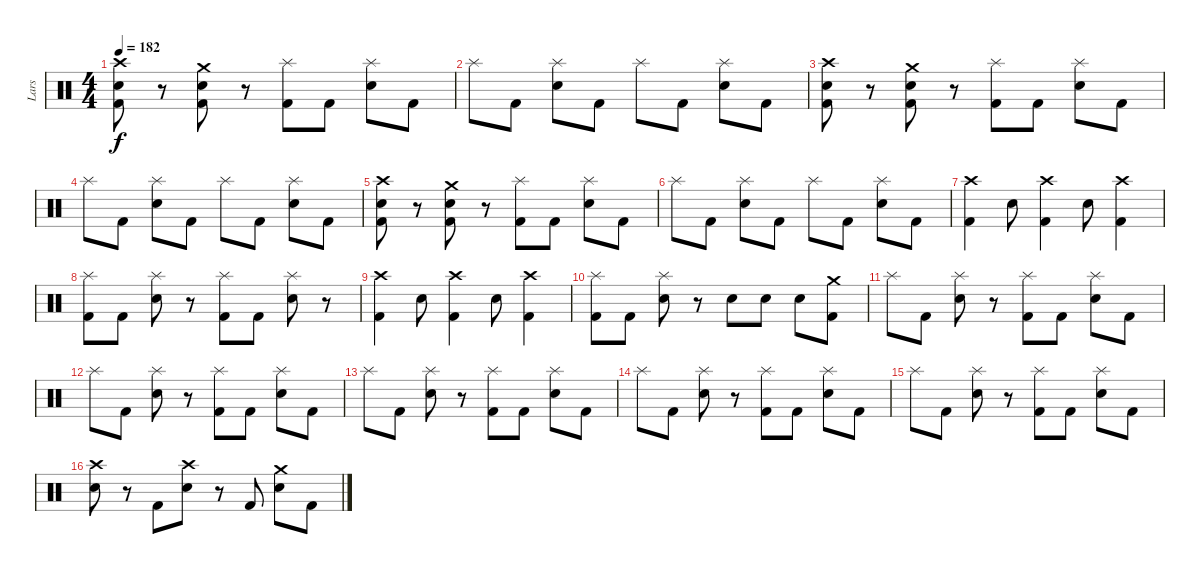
\track ("Lars" "Lars") {instrument percussion}
\staff {score}
\articulation defaults
\ts (4 4)
\tempo 182
\clef neutral
\ks c
("Crash high (hit)" "Snare (hit) 2" "Kick (hit) 2").8{dy f} r.8 ("Crash medium (hit)" "Snare (hit) 2" "Kick (hit) 2").8 r.8 ("Splash (hit)" "Kick (hit) 2").8 "Kick (hit) 2".8 ("Splash (hit)" "Snare (hit) 2").8 "Kick (hit) 2".8 |
"Splash (hit)".8 "Kick (hit) 2".8 ("Splash (hit)" "Snare (hit) 2").8 "Kick (hit) 2".8 "Splash (hit)".8 "Kick (hit) 2".8 ("Splash (hit)" "Snare (hit) 2").8 "Kick (hit) 2".8 |
("Crash high (hit)" "Snare (hit) 2" "Kick (hit) 2").8 r.8 ("Crash medium (hit)" "Snare (hit) 2" "Kick (hit) 2").8 r.8 ("Splash (hit)" "Kick (hit) 2").8 "Kick (hit) 2".8 ("Splash (hit)" "Snare (hit) 2").8 "Kick (hit) 2".8 |
"Splash (hit)".8 "Kick (hit) 2".8 ("Splash (hit)" "Snare (hit) 2").8 "Kick (hit) 2".8 "Splash (hit)".8 "Kick (hit) 2".8 ("Splash (hit)" "Snare (hit) 2").8 "Kick (hit) 2".8 |
("Crash high (hit)" "Snare (hit) 2" "Kick (hit) 2").8 r.8 ("Crash medium (hit)" "Snare (hit) 2" "Kick (hit) 2").8 r.8 ("Splash (hit)" "Kick (hit) 2").8 "Kick (hit) 2".8 ("Splash (hit)" "Snare (hit) 2").8 "Kick (hit) 2".8 |
"Splash (hit)".8 "Kick (hit) 2".8 ("Splash (hit)" "Snare (hit) 2").8 "Kick (hit) 2".8 "Splash (hit)".8 "Kick (hit) 2".8 ("Splash (hit)" "Snare (hit) 2").8 "Kick (hit) 2".8 |
("Crash high (hit)" "Kick (hit) 2").4 "Snare (hit) 2".8 ("Crash high (hit)" "Kick (hit) 2").4 "Snare (hit) 2".8 ("Crash high (hit)" "Kick (hit) 2").4 |
("Splash (hit)" "Kick (hit) 2").8 "Kick (hit) 2".8 ("Splash (hit)" "Snare (hit) 2").8 r.8 ("Splash (hit)" "Kick (hit) 2").8 "Kick (hit) 2".8 ("Splash (hit)" "Snare (hit) 2").8 r.8 |
("Crash high (hit)" "Kick (hit) 2").4 "Snare (hit) 2".8 ("Crash high (hit)" "Kick (hit) 2").4 "Snare (hit) 2".8 ("Crash high (hit)" "Kick (hit) 2").4 |
("Splash (hit)" "Kick (hit) 2").8 "Kick (hit) 2".8 ("Splash (hit)" "Snare (hit) 2").8 r.8 "Snare (hit) 2".8 "Snare (hit) 2".8 "Snare (hit) 2".8 ("Crash medium (hit)" "Kick (hit) 2").8 |
"Splash (hit)".8 "Kick (hit) 2".8 ("Splash (hit)" "Snare (hit) 2").8 r.8 ("Splash (hit)" "Kick (hit) 2").8 "Kick (hit) 2".8 ("Splash (hit)" "Snare (hit) 2").8 "Kick (hit) 2".8 |
"Splash (hit)".8 "Kick (hit) 2".8 ("Splash (hit)" "Snare (hit) 2").8 r.8 ("Splash (hit)" "Kick (hit) 2").8 "Kick (hit) 2".8 ("Splash (hit)" "Snare (hit) 2").8 "Kick (hit) 2".8 |
"Splash (hit)".8 "Kick (hit) 2".8 ("Splash (hit)" "Snare (hit) 2").8 r.8 ("Splash (hit)" "Kick (hit) 2").8 "Kick (hit) 2".8 ("Splash (hit)" "Snare (hit) 2").8 "Kick (hit) 2".8 |
"Splash (hit)".8 "Kick (hit) 2".8 ("Splash (hit)" "Snare (hit) 2").8 r.8 ("Splash (hit)" "Kick (hit) 2").8 "Kick (hit) 2".8 ("Splash (hit)" "Snare (hit) 2").8 "Kick (hit) 2".8 |
"Splash (hit)".8 "Kick (hit) 2".8 ("Splash (hit)" "Snare (hit) 2").8 r.8 ("Splash (hit)" "Kick (hit) 2").8 "Kick (hit) 2".8 ("Splash (hit)" "Snare (hit) 2").8 "Kick (hit) 2".8 |
("Crash high (hit)" "Snare (hit) 2").8 r.8 "Kick (hit) 2".8 ("Crash high (hit)" "Snare (hit) 2").8 r.8 "Kick (hit) 2".8 ("Crash medium (hit)" "Snare (hit) 2").8 "Kick (hit) 2".8
